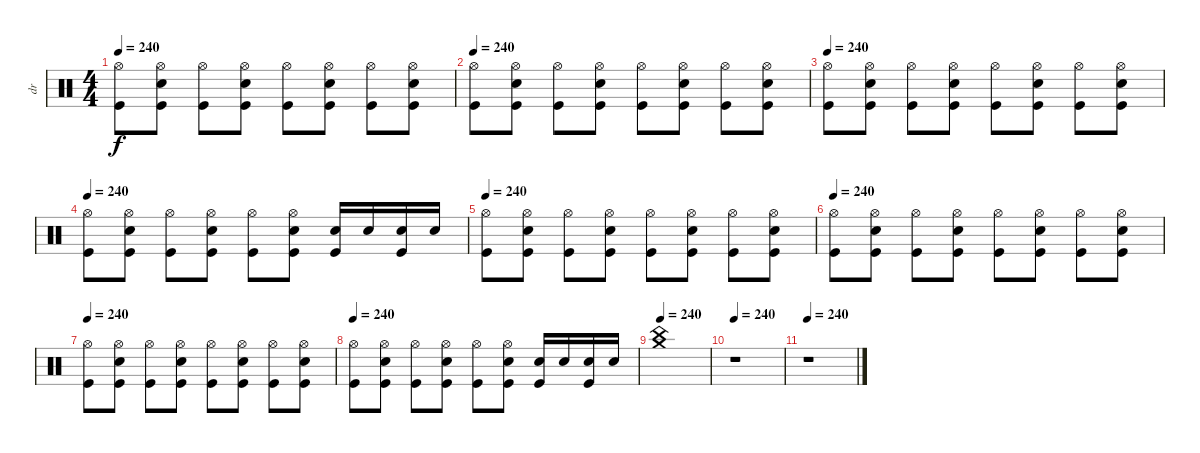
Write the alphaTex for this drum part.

\track ("dr" "dr") {instrument percussion}
\staff {score}
\articulation defaults
\ts (4 4)
\tempo 240
\clef neutral
\ks c
("Hi-Hat (open)" "Kick (hit)").8{dy f} ("Hi-Hat (open)" "Snare (hit) 2" "Kick (hit)").8 ("Hi-Hat (open)" "Kick (hit)").8 ("Hi-Hat (open)" "Snare (hit) 2" "Kick (hit)").8 ("Hi-Hat (open)" "Kick (hit)").8 ("Hi-Hat (open)" "Snare (hit) 2" "Kick (hit)").8 ("Hi-Hat (open)" "Kick (hit)").8 ("Hi-Hat (open)" "Snare (hit) 2" "Kick (hit)").8 |
\tempo 240
("Hi-Hat (open)" "Kick (hit)").8 ("Hi-Hat (open)" "Snare (hit) 2" "Kick (hit)").8 ("Hi-Hat (open)" "Kick (hit)").8 ("Hi-Hat (open)" "Snare (hit) 2" "Kick (hit)").8 ("Hi-Hat (open)" "Kick (hit)").8 ("Hi-Hat (open)" "Snare (hit) 2" "Kick (hit)").8 ("Hi-Hat (open)" "Kick (hit)").8 ("Hi-Hat (open)" "Snare (hit) 2" "Kick (hit)").8 |
\tempo 240
("Hi-Hat (open)" "Kick (hit)").8 ("Hi-Hat (open)" "Snare (hit) 2" "Kick (hit)").8 ("Hi-Hat (open)" "Kick (hit)").8 ("Hi-Hat (open)" "Snare (hit) 2" "Kick (hit)").8 ("Hi-Hat (open)" "Kick (hit)").8 ("Hi-Hat (open)" "Snare (hit) 2" "Kick (hit)").8 ("Hi-Hat (open)" "Kick (hit)").8 ("Hi-Hat (open)" "Snare (hit) 2" "Kick (hit)").8 |
\tempo 240
("Hi-Hat (open)" "Kick (hit)").8 ("Hi-Hat (open)" "Snare (hit) 2" "Kick (hit)").8 ("Hi-Hat (open)" "Kick (hit)").8 ("Hi-Hat (open)" "Snare (hit) 2" "Kick (hit)").8 ("Hi-Hat (open)" "Kick (hit)").8 ("Hi-Hat (open)" "Snare (hit) 2" "Kick (hit)").8 ("Snare (hit) 2" "Kick (hit)").16 "Snare (hit) 2".16 ("Snare (hit) 2" "Kick (hit)").16 "Snare (hit) 2".16 |
\tempo 240
("Hi-Hat (open)" "Kick (hit)").8 ("Hi-Hat (open)" "Snare (hit) 2" "Kick (hit)").8 ("Hi-Hat (open)" "Kick (hit)").8 ("Hi-Hat (open)" "Snare (hit) 2" "Kick (hit)").8 ("Hi-Hat (open)" "Kick (hit)").8 ("Hi-Hat (open)" "Snare (hit) 2" "Kick (hit)").8 ("Hi-Hat (open)" "Kick (hit)").8 ("Hi-Hat (open)" "Snare (hit) 2" "Kick (hit)").8 |
\tempo 240
("Hi-Hat (open)" "Kick (hit)").8 ("Hi-Hat (open)" "Snare (hit) 2" "Kick (hit)").8 ("Hi-Hat (open)" "Kick (hit)").8 ("Hi-Hat (open)" "Snare (hit) 2" "Kick (hit)").8 ("Hi-Hat (open)" "Kick (hit)").8 ("Hi-Hat (open)" "Snare (hit) 2" "Kick (hit)").8 ("Hi-Hat (open)" "Kick (hit)").8 ("Hi-Hat (open)" "Snare (hit) 2" "Kick (hit)").8 |
\tempo 240
("Hi-Hat (open)" "Kick (hit)").8 ("Hi-Hat (open)" "Snare (hit) 2" "Kick (hit)").8 ("Hi-Hat (open)" "Kick (hit)").8 ("Hi-Hat (open)" "Snare (hit) 2" "Kick (hit)").8 ("Hi-Hat (open)" "Kick (hit)").8 ("Hi-Hat (open)" "Snare (hit) 2" "Kick (hit)").8 ("Hi-Hat (open)" "Kick (hit)").8 ("Hi-Hat (open)" "Snare (hit) 2" "Kick (hit)").8 |
\tempo 240
("Hi-Hat (open)" "Kick (hit)").8 ("Hi-Hat (open)" "Snare (hit) 2" "Kick (hit)").8 ("Hi-Hat (open)" "Kick (hit)").8 ("Hi-Hat (open)" "Snare (hit) 2" "Kick (hit)").8 ("Hi-Hat (open)" "Kick (hit)").8 ("Hi-Hat (open)" "Snare (hit) 2" "Kick (hit)").8 ("Snare (hit) 2" "Kick (hit)").16 "Snare (hit) 2".16 ("Snare (hit) 2" "Kick (hit)").16 "Snare (hit) 2".16 |
\tempo 240
("China (hit)" "Crash medium (hit)").1 |
\tempo 240
r.1 |
\tempo 240
r.1
